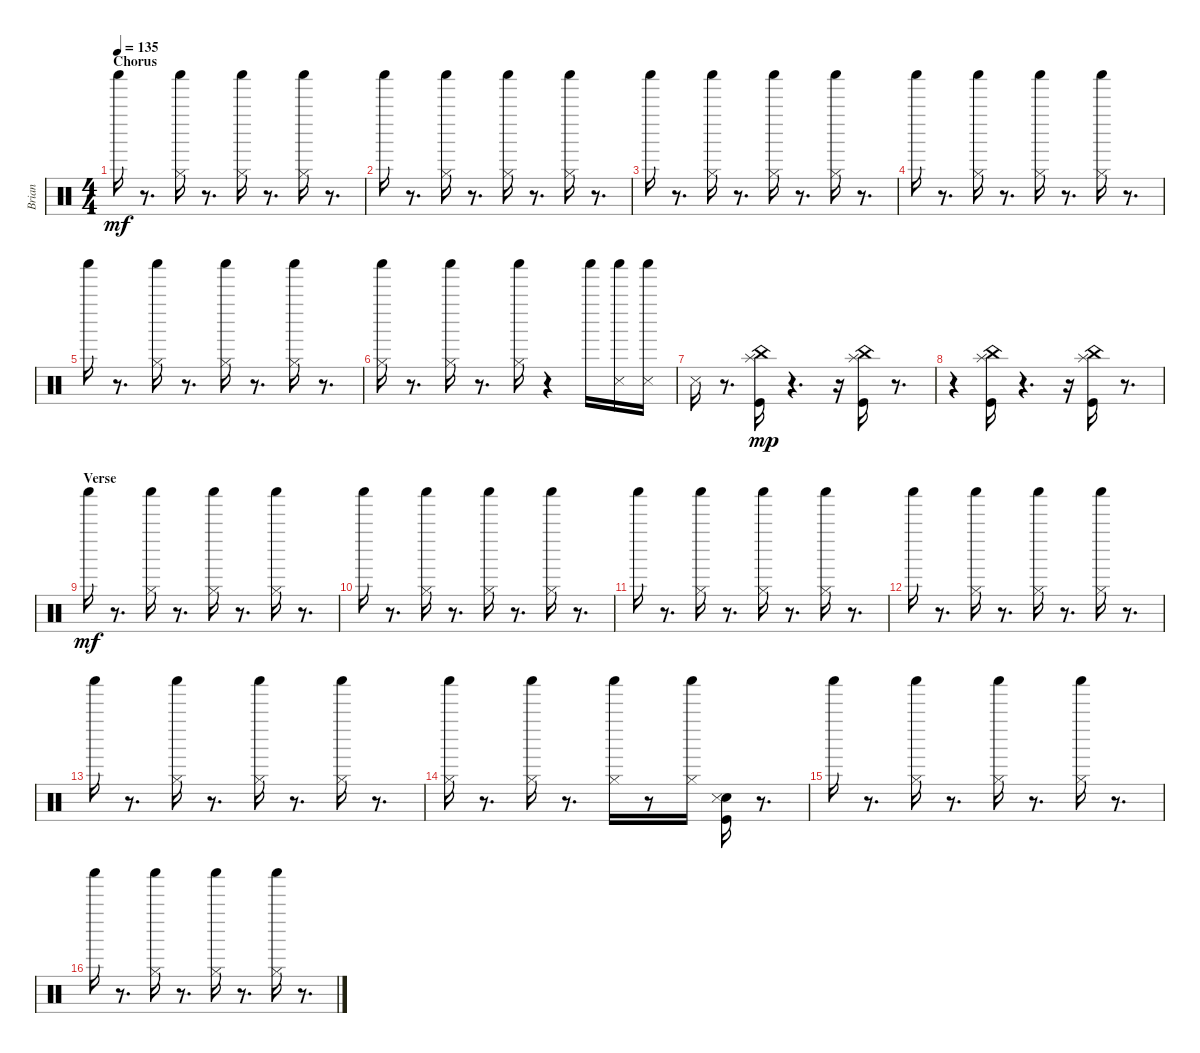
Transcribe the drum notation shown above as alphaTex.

\track ("Brian" "Brian") {instrument percussion}
\staff {score}
\articulation defaults
\ts (4 4)
\section ("" "Chorus")
\tempo 135
\clef neutral
\ks c "Shaker (hit)".16{dy mf}
r.8{d} ("Shaker (hit)" "Hi-Hat (closed)").16 r.8{d} ("Shaker (hit)" "Hi-Hat (closed)").16 r.8{d} ("Shaker (hit)" "Hi-Hat (closed)").16 r.8{d} |
"Shaker (hit)".16 r.8{d} ("Shaker (hit)" "Hi-Hat (closed)").16 r.8{d} ("Shaker (hit)" "Hi-Hat (closed)").16 r.8{d} ("Shaker (hit)" "Hi-Hat (closed)").16 r.8{d} |
"Shaker (hit)".16 r.8{d} ("Shaker (hit)" "Hi-Hat (closed)").16 r.8{d} ("Shaker (hit)" "Hi-Hat (closed)").16 r.8{d} ("Shaker (hit)" "Hi-Hat (closed)").16 r.8{d} |
"Shaker (hit)".16 r.8{d} ("Shaker (hit)" "Hi-Hat (closed)").16 r.8{d} ("Shaker (hit)" "Hi-Hat (closed)").16 r.8{d} ("Shaker (hit)" "Hi-Hat (closed)").16 r.8{d} |
"Shaker (hit)".16 r.8{d} ("Shaker (hit)" "Hi-Hat (closed)").16 r.8{d} ("Shaker (hit)" "Hi-Hat (closed)").16 r.8{d} ("Shaker (hit)" "Hi-Hat (closed)").16 r.8{d} |
("Shaker (hit)" "Hi-Hat (closed)").16 r.8{d} ("Shaker (hit)" "Hi-Hat (closed)").16 r.8{d} ("Shaker (hit)" "Hi-Hat (closed)").16 r.4 "Shaker (hit)".16 ("Snare (side stick) 3" "Shaker (hit)").16 ("Snare (side stick) 3" "Shaker (hit)").16 |
"Snare (side stick) 3".16 r.8{d} ("Splash (hit)" "Kick (hit)" "China (hit)").16{dy mp} r.4{d} r.16 ("Splash (hit)" "Kick (hit)" "China (hit)").16 r.8{d} |
r.4 ("Splash (hit)" "Kick (hit)" "China (hit)").16 r.4{d} r.16 ("Splash (hit)" "Kick (hit)" "China (hit)").16 r.8{d} |
\section ("" "Verse")
"Shaker (hit)".16{dy mf} r.8{d} ("Shaker (hit)" "Hi-Hat (closed)").16 r.8{d} ("Shaker (hit)" "Hi-Hat (closed)").16 r.8{d} ("Shaker (hit)" "Hi-Hat (closed)").16 r.8{d} |
"Shaker (hit)".16 r.8{d} ("Shaker (hit)" "Hi-Hat (closed)").16 r.8{d} ("Shaker (hit)" "Hi-Hat (closed)").16 r.8{d} ("Shaker (hit)" "Hi-Hat (closed)").16 r.8{d} |
"Shaker (hit)".16 r.8{d} ("Shaker (hit)" "Hi-Hat (closed)").16 r.8{d} ("Shaker (hit)" "Hi-Hat (closed)").16 r.8{d} ("Shaker (hit)" "Hi-Hat (closed)").16 r.8{d} |
"Shaker (hit)".16 r.8{d} ("Shaker (hit)" "Hi-Hat (closed)").16 r.8{d} ("Shaker (hit)" "Hi-Hat (closed)").16 r.8{d} ("Shaker (hit)" "Hi-Hat (closed)").16 r.8{d} |
"Shaker (hit)".16 r.8{d} ("Shaker (hit)" "Hi-Hat (closed)").16 r.8{d} ("Shaker (hit)" "Hi-Hat (closed)").16 r.8{d} ("Shaker (hit)" "Hi-Hat (closed)").16 r.8{d} |
("Shaker (hit)" "Hi-Hat (closed)").16 r.8{d} ("Shaker (hit)" "Hi-Hat (closed)").16 r.8{d} ("Shaker (hit)" "Hi-Hat (closed)").16 r.8 ("Shaker (hit)" "Hi-Hat (closed)").16 ("Snare (hit) 2" "Snare (side stick) 3" "Kick (hit)").16 r.8{d} |
"Shaker (hit)".16 r.8{d} ("Shaker (hit)" "Hi-Hat (closed)").16 r.8{d} ("Shaker (hit)" "Hi-Hat (closed)").16 r.8{d} ("Shaker (hit)" "Hi-Hat (closed)").16 r.8{d} |
"Shaker (hit)".16 r.8{d} ("Shaker (hit)" "Hi-Hat (closed)").16 r.8{d} ("Shaker (hit)" "Hi-Hat (closed)").16 r.8{d} ("Shaker (hit)" "Hi-Hat (closed)").16 r.8{d}
